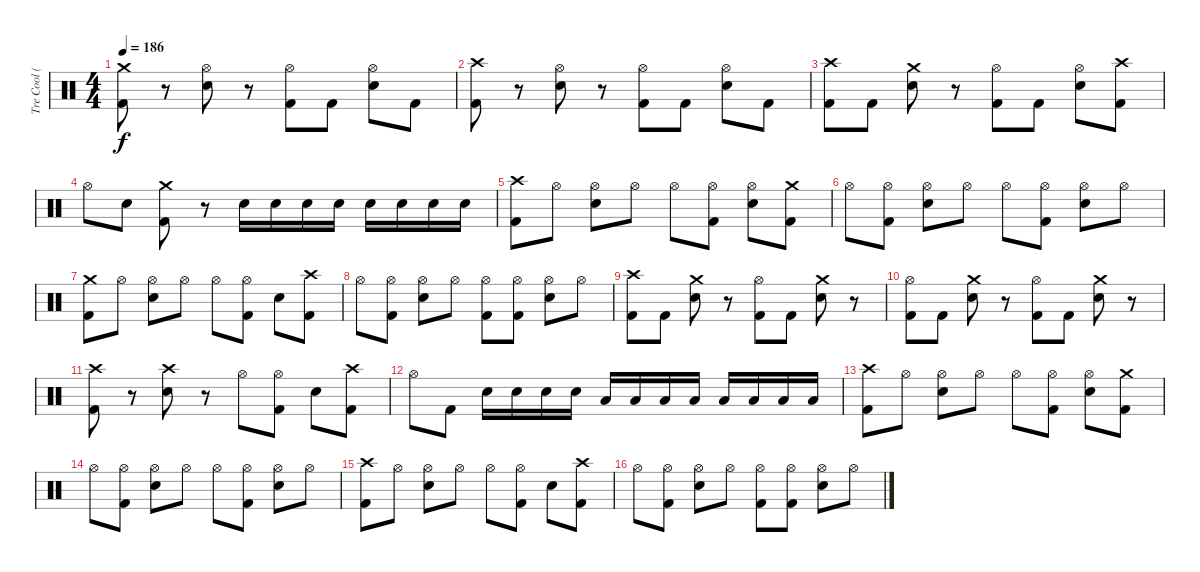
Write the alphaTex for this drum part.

\track ("Tre Cool (Drums)" "Tre Cool (") {instrument percussion}
\staff {score}
\articulation defaults
\ts (4 4)
\tempo 186
\clef neutral
\ks c
("Crash medium (hit)" "Kick (hit) 2").8{dy f} r.8 ("Hi-Hat (open)" "Snare (hit) 2").8 r.8 ("Hi-Hat (open)" "Kick (hit) 2").8 "Kick (hit) 2".8 ("Hi-Hat (open)" "Snare (hit) 2").8 "Kick (hit) 2".8 |
("Crash high (hit)" "Kick (hit) 2").8 r.8 ("Hi-Hat (open)" "Snare (hit) 2").8 r.8 ("Hi-Hat (open)" "Kick (hit) 2").8 "Kick (hit) 2".8 ("Hi-Hat (open)" "Snare (hit) 2").8 "Kick (hit) 2".8 |
("Kick (hit) 2" "Crash high (hit)").8 "Kick (hit) 2".8 ("Snare (hit) 2" "Crash medium (hit)").8 r.8 ("Kick (hit) 2" "Hi-Hat (open)").8 "Kick (hit) 2".8 ("Snare (hit) 2" "Hi-Hat (open)").8 ("Kick (hit) 2" "Crash high (hit)").8 |
"Hi-Hat (open)".8 "Snare (hit) 2".8 ("Kick (hit) 2" "Crash medium (hit)").8 r.8 "Snare (hit) 2".16 "Snare (hit) 2".16 "Snare (hit) 2".16 "Snare (hit) 2".16 "Snare (hit) 2".16 "Snare (hit) 2".16 "Snare (hit) 2".16 "Snare (hit) 2".16 |
("Kick (hit) 2" "Crash high (hit)").8 "Hi-Hat (open)".8 ("Snare (hit) 2" "Hi-Hat (open)").8 "Hi-Hat (open)".8 "Hi-Hat (open)".8 ("Kick (hit) 2" "Hi-Hat (open)").8 ("Snare (hit) 2" "Hi-Hat (open)").8 ("Kick (hit) 2" "Crash medium (hit)").8 |
"Hi-Hat (open)".8 ("Kick (hit) 2" "Hi-Hat (open)").8 ("Snare (hit) 2" "Hi-Hat (open)").8 "Hi-Hat (open)".8 "Hi-Hat (open)".8 ("Kick (hit) 2" "Hi-Hat (open)").8 ("Snare (hit) 2" "Hi-Hat (open)").8 "Hi-Hat (open)".8 |
("Kick (hit) 2" "Crash medium (hit)").8 "Hi-Hat (open)".8 ("Snare (hit) 2" "Hi-Hat (open)").8 "Hi-Hat (open)".8 "Hi-Hat (open)".8 ("Kick (hit) 2" "Hi-Hat (open)").8 "Snare (hit) 2".8 ("Kick (hit) 2" "Crash high (hit)").8 |
"Hi-Hat (open)".8 ("Kick (hit) 2" "Hi-Hat (open)").8 ("Snare (hit) 2" "Hi-Hat (open)").8 "Hi-Hat (open)".8 ("Kick (hit) 2" "Hi-Hat (open)").8 ("Kick (hit) 2" "Hi-Hat (open)").8 ("Hi-Hat (open)" "Snare (hit) 2").8 "Hi-Hat (open)".8 |
("Crash high (hit)" "Kick (hit) 2").8 "Kick (hit) 2".8 ("Crash medium (hit)" "Snare (hit) 2").8 r.8 ("Hi-Hat (open)" "Kick (hit) 2").8 "Kick (hit) 2".8 ("Crash medium (hit)" "Snare (hit) 2").8 r.8 |
("Hi-Hat (open)" "Kick (hit) 2").8 "Kick (hit) 2".8 ("Crash medium (hit)" "Snare (hit) 2").8 r.8 ("Hi-Hat (open)" "Kick (hit) 2").8 "Kick (hit) 2".8 ("Crash medium (hit)" "Snare (hit) 2").8 r.8 |
("Kick (hit) 2" "Crash high (hit)").8 r.8 ("Snare (hit) 2" "Crash high (hit)").8 r.8 "Hi-Hat (open)".8 ("Kick (hit) 2" "Hi-Hat (open)").8 "Snare (hit) 2".8 ("Kick (hit) 2" "Crash high (hit)").8 |
"Hi-Hat (open)".8 "Kick (hit) 2".8 "Snare (hit) 2".16 "Snare (hit) 2".16 "Snare (hit) 2".16 "Snare (hit) 2".16 "Low Tom (hit)".16 "Low Tom (hit)".16 "Low Tom (hit)".16 "Low Tom (hit)".16 "Low Floor Tom (hit)".16 "Low Floor Tom (hit)".16 "Low Floor Tom (hit)".16 "Low Floor Tom (hit)".16 |
("Crash high (hit)" "Kick (hit) 2").8 "Hi-Hat (open)".8 ("Hi-Hat (open)" "Snare (hit) 2").8 "Hi-Hat (open)".8 "Hi-Hat (open)".8 ("Kick (hit) 2" "Hi-Hat (open)").8 ("Hi-Hat (open)" "Snare (hit) 2").8 ("Kick (hit) 2" "Crash medium (hit)").8 |
"Hi-Hat (open)".8 ("Kick (hit) 2" "Hi-Hat (open)").8 ("Hi-Hat (open)" "Snare (hit) 2").8 "Hi-Hat (open)".8 "Hi-Hat (open)".8 ("Kick (hit) 2" "Hi-Hat (open)").8 ("Hi-Hat (open)" "Snare (hit) 2").8 "Hi-Hat (open)".8 |
("Crash high (hit)" "Kick (hit) 2").8 "Hi-Hat (open)".8 ("Snare (hit) 2" "Hi-Hat (open)").8 "Hi-Hat (open)".8 "Hi-Hat (open)".8 ("Kick (hit) 2" "Hi-Hat (open)").8 "Snare (hit) 2".8 ("Kick (hit) 2" "Crash high (hit)").8 |
"Hi-Hat (open)".8 ("Kick (hit) 2" "Hi-Hat (open)").8 ("Hi-Hat (open)" "Snare (hit) 2").8 "Hi-Hat (open)".8 ("Hi-Hat (open)" "Kick (hit) 2").8 ("Kick (hit) 2" "Hi-Hat (open)").8 ("Hi-Hat (open)" "Snare (hit) 2").8 "Hi-Hat (open)".8
